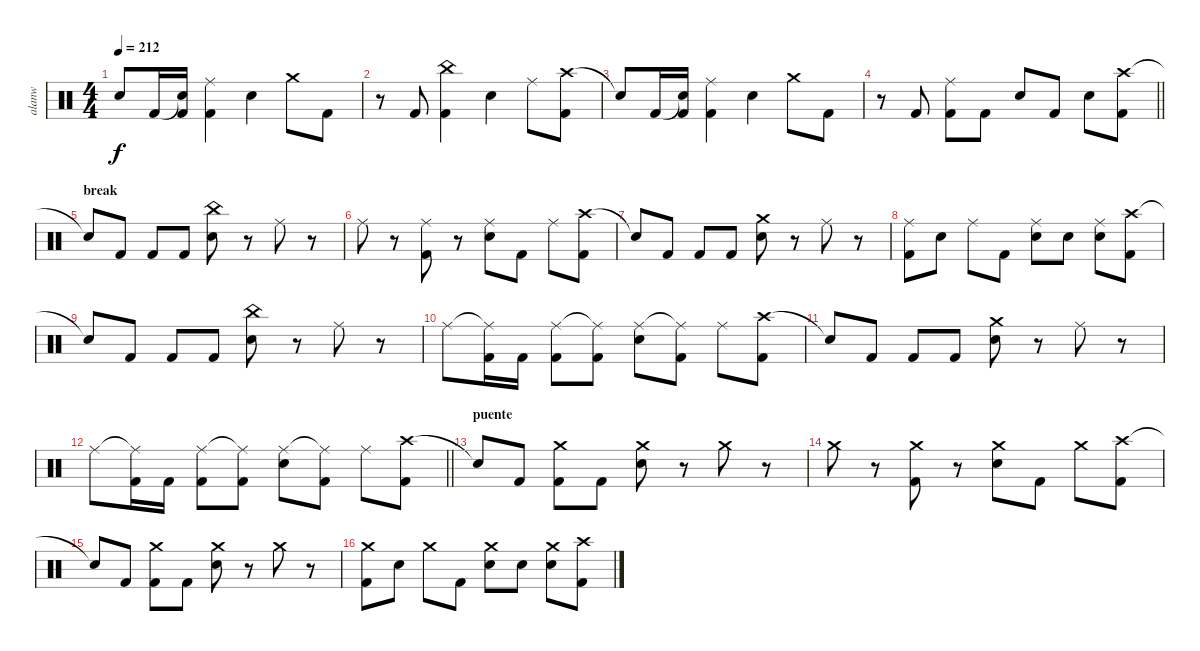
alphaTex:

\track ("alanw" "alanw") {instrument percussion}
\staff {score}
\articulation defaults
\ts (4 4)
\tempo 212
\clef neutral
\ks c "Snare (hit)"{t}.8{dy f} "Kick (hit) 2".16
("Snare (hit)"{t} "Kick (hit) 2").16 ("Ride (middle)" "Kick (hit) 2").4 "Electric Snare (hit)".4 "Crash medium (hit)".8 "Kick (hit) 2".8 |
r.8 "Kick (hit) 2".8 ("China (hit)" "Kick (hit) 2").4 "Electric Snare (hit)".4 "Ride (middle)".8 ("Crash high (hit)" "Kick (hit) 2").8 |
"Snare (hit)"{t}.8 "Kick (hit) 2".16 ("Snare (hit)"{t} "Kick (hit) 2").16 ("Ride (middle)" "Kick (hit) 2").4 "Electric Snare (hit)".4 "Crash medium (hit)".8 "Kick (hit) 2".8 |
\barLineRight lightlight
r.8 "Kick (hit) 2".8 ("Ride (middle)" "Kick (hit) 2").8 "Kick (hit) 2".8 "Electric Snare (hit)".8 "Kick (hit) 2".8 "Electric Snare (hit)".8 ("Crash high (hit)" "Kick (hit) 2").8 |
\section ("" "break")
"Snare (hit)"{t}.8 "Kick (hit) 2".8 "Kick (hit) 2".8 "Kick (hit) 2".8 ("China (hit)" "Electric Snare (hit)").8 r.8 "Ride (middle)".8 r.8 |
"Ride (middle)".8 r.8 ("Ride (middle)" "Kick (hit) 2").8 r.8 ("Ride (middle)" "Electric Snare (hit)").8 "Kick (hit) 2".8 "Ride (middle)".8 ("Crash high (hit)" "Kick (hit) 2").8 |
"Snare (hit)"{t}.8 "Kick (hit) 2".8 "Kick (hit) 2".8 "Kick (hit) 2".8 ("Crash medium (hit)" "Electric Snare (hit)").8 r.8 "Ride (middle)".8 r.8 |
("Ride (middle)" "Kick (hit) 2").8 "Electric Snare (hit)".8 "Ride (middle)".8 "Kick (hit) 2".8 ("Ride (middle)" "Electric Snare (hit)").8 "Electric Snare (hit)".8 ("Ride (middle)" "Electric Snare (hit)").8 ("Crash high (hit)" "Kick (hit) 2").8 |
"Snare (hit)"{t}.8 "Kick (hit) 2".8 "Kick (hit) 2".8 "Kick (hit) 2".8 ("China (hit)" "Electric Snare (hit)").8 r.8 "Ride (middle)".8 r.8 |
"Ride (middle)".8 ("Ride (middle)"{t} "Kick (hit) 2").16 "Kick (hit) 2".16 ("Ride (middle)" "Kick (hit) 2").8 ("Ride (middle)"{t} "Kick (hit) 2").8 ("Ride (middle)" "Electric Snare (hit)").8 ("Ride (middle)"{t} "Kick (hit) 2").8 "Ride (middle)".8 ("Crash high (hit)" "Kick (hit) 2").8 |
"Snare (hit)"{t}.8 "Kick (hit) 2".8 "Kick (hit) 2".8 "Kick (hit) 2".8 ("Crash medium (hit)" "Electric Snare (hit)").8 r.8 "Ride (middle)".8 r.8 |
\barLineRight lightlight "Ride (middle)".8
("Ride (middle)"{t} "Kick (hit) 2").16 "Kick (hit) 2".16 ("Ride (middle)" "Kick (hit) 2").8 ("Ride (middle)"{t} "Kick (hit) 2").8 ("Ride (middle)" "Electric Snare (hit)").8 ("Ride (middle)"{t} "Kick (hit) 2").8 "Ride (middle)".8 ("Crash high (hit)" "Kick (hit) 2").8 |
\section ("" "puente")
"Snare (hit)"{t}.8 "Kick (hit) 2".8 ("Crash medium (hit)" "Kick (hit) 2").8 "Kick (hit) 2".8 ("Crash medium (hit)" "Electric Snare (hit)").8 r.8 "Crash medium (hit)".8 r.8 |
"Crash medium (hit)".8 r.8 ("Crash medium (hit)" "Kick (hit) 2").8 r.8 ("Crash medium (hit)" "Electric Snare (hit)").8 "Kick (hit) 2".8 "Crash medium (hit)".8 ("Crash high (hit)" "Kick (hit) 2").8 |
"Snare (hit)"{t}.8 "Kick (hit) 2".8 ("Crash medium (hit)" "Kick (hit) 2").8 "Kick (hit) 2".8 ("Crash medium (hit)" "Electric Snare (hit)").8 r.8 "Crash medium (hit)".8 r.8 |
("Crash medium (hit)" "Kick (hit) 2").8 "Electric Snare (hit)".8 "Crash medium (hit)".8 "Kick (hit) 2".8 ("Crash medium (hit)" "Electric Snare (hit)").8 "Electric Snare (hit)".8 ("Crash medium (hit)" "Electric Snare (hit)").8 ("Crash high (hit)" "Kick (hit) 2").8
